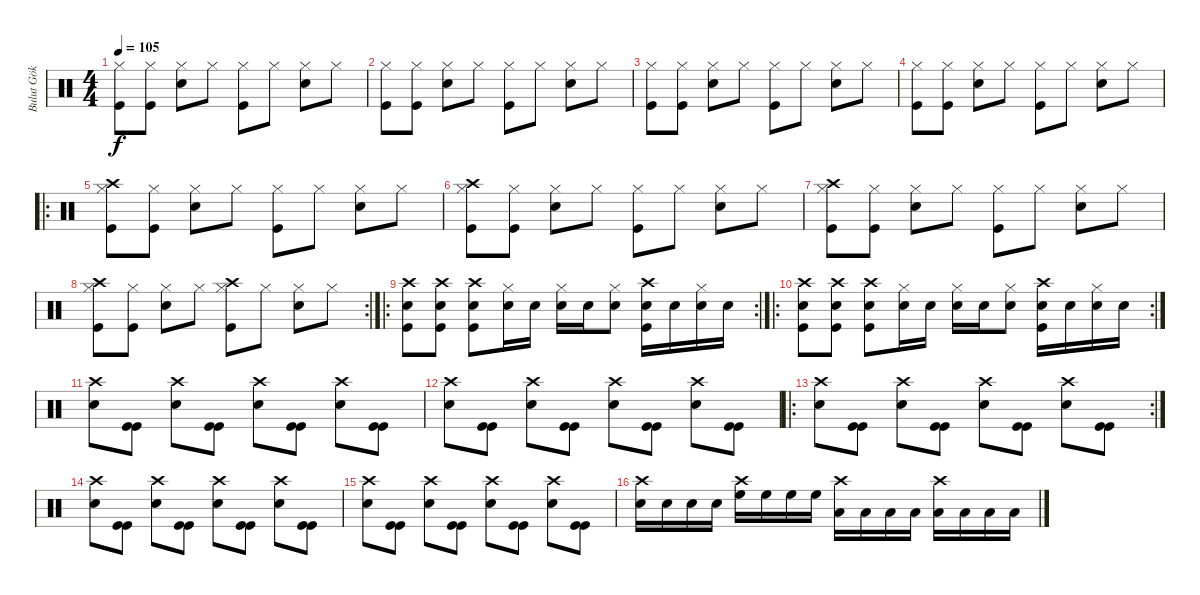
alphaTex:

\track ("Bulut Gök" "Bulut Gök") {instrument percussion}
\staff {score}
\articulation defaults
\ts (4 4)
\tempo 105
\clef neutral
\ks c
("Hi-Hat (closed)" "Kick (hit)").8{dy f} ("Hi-Hat (closed)" "Kick (hit)").8 ("Hi-Hat (closed)" "Snare (hit) 2").8 "Hi-Hat (closed)".8 ("Hi-Hat (closed)" "Kick (hit)").8 "Hi-Hat (closed)".8 ("Hi-Hat (closed)" "Snare (hit) 2").8 "Hi-Hat (closed)".8 |
("Hi-Hat (closed)" "Kick (hit)").8 ("Hi-Hat (closed)" "Kick (hit)").8 ("Hi-Hat (closed)" "Snare (hit) 2").8 "Hi-Hat (closed)".8 ("Hi-Hat (closed)" "Kick (hit)").8 "Hi-Hat (closed)".8 ("Hi-Hat (closed)" "Snare (hit) 2").8 "Hi-Hat (closed)".8 |
("Hi-Hat (closed)" "Kick (hit)").8 ("Hi-Hat (closed)" "Kick (hit)").8 ("Hi-Hat (closed)" "Snare (hit) 2").8 "Hi-Hat (closed)".8 ("Hi-Hat (closed)" "Kick (hit)").8 "Hi-Hat (closed)".8 ("Hi-Hat (closed)" "Snare (hit) 2").8 "Hi-Hat (closed)".8 |
("Hi-Hat (closed)" "Kick (hit)").8 ("Hi-Hat (closed)" "Kick (hit)").8 ("Hi-Hat (closed)" "Snare (hit) 2").8 "Hi-Hat (closed)".8 ("Hi-Hat (closed)" "Kick (hit)").8 "Hi-Hat (closed)".8 ("Hi-Hat (closed)" "Snare (hit) 2").8 "Hi-Hat (closed)".8 |
\ro
("Crash high (hit)" "Hi-Hat (closed)" "Kick (hit)").8 ("Hi-Hat (closed)" "Kick (hit)").8 ("Hi-Hat (closed)" "Snare (hit) 2").8 "Hi-Hat (closed)".8 ("Hi-Hat (closed)" "Kick (hit)").8 "Hi-Hat (closed)".8 ("Hi-Hat (closed)" "Snare (hit) 2").8 "Hi-Hat (closed)".8 |
("Crash high (hit)" "Hi-Hat (closed)" "Kick (hit)").8 ("Hi-Hat (closed)" "Kick (hit)").8 ("Hi-Hat (closed)" "Snare (hit) 2").8 "Hi-Hat (closed)".8 ("Hi-Hat (closed)" "Kick (hit)").8 "Hi-Hat (closed)".8 ("Hi-Hat (closed)" "Snare (hit) 2").8 "Hi-Hat (closed)".8 |
("Crash high (hit)" "Hi-Hat (closed)" "Kick (hit)").8 ("Hi-Hat (closed)" "Kick (hit)").8 ("Hi-Hat (closed)" "Snare (hit) 2").8 "Hi-Hat (closed)".8 ("Hi-Hat (closed)" "Kick (hit)").8 "Hi-Hat (closed)".8 ("Hi-Hat (closed)" "Snare (hit) 2").8 "Hi-Hat (closed)".8 |
\rc 2
("Crash high (hit)" "Hi-Hat (closed)" "Kick (hit)").8 ("Hi-Hat (closed)" "Kick (hit)").8 ("Hi-Hat (closed)" "Snare (hit) 2").8 "Hi-Hat (closed)".8 ("Crash high (hit)" "Hi-Hat (closed)" "Kick (hit)").8 "Hi-Hat (closed)".8 ("Hi-Hat (closed)" "Snare (hit) 2").8 "Hi-Hat (closed)".8 |
\ro
\rc 2
("Crash high (hit)" "Snare (hit) 2" "Kick (hit)").8 ("Crash high (hit)" "Snare (hit) 2" "Kick (hit)").8 ("Crash high (hit)" "Snare (hit) 2" "Kick (hit)").8 ("Hi-Hat (closed)" "Snare (hit) 2").16 "Snare (hit) 2".16 ("Hi-Hat (closed)" "Snare (hit) 2").16 "Snare (hit) 2".16 ("Hi-Hat (closed)" "Snare (hit) 2").8 ("Crash high (hit)" "Kick (hit)" "Snare (hit) 2").16 "Snare (hit) 2".16 ("Hi-Hat (closed)" "Snare (hit) 2").16 "Snare (hit) 2".16 |
\ro
\rc 2
("Crash high (hit)" "Snare (hit) 2" "Kick (hit)").8 ("Crash high (hit)" "Snare (hit) 2" "Kick (hit)").8 ("Crash high (hit)" "Snare (hit) 2" "Kick (hit)").8 ("Hi-Hat (closed)" "Snare (hit) 2").16 "Snare (hit) 2".16 ("Hi-Hat (closed)" "Snare (hit) 2").16 "Snare (hit) 2".16 ("Hi-Hat (closed)" "Snare (hit) 2").8 ("Crash high (hit)" "Kick (hit)" "Snare (hit) 2").16 "Snare (hit) 2".16 ("Hi-Hat (closed)" "Snare (hit) 2").16 "Snare (hit) 2".16 |
("Crash high (hit)" "Snare (hit) 2").8 ("Kick (hit)" "Kick (hit)").8 ("Crash high (hit)" "Snare (hit) 2").8 ("Kick (hit)" "Kick (hit)").8 ("Crash high (hit)" "Snare (hit) 2").8 ("Kick (hit)" "Kick (hit)").8 ("Crash high (hit)" "Snare (hit) 2").8 ("Kick (hit)" "Kick (hit)").8 |
("Crash high (hit)" "Snare (hit) 2").8 ("Kick (hit)" "Kick (hit)").8 ("Crash high (hit)" "Snare (hit) 2").8 ("Kick (hit)" "Kick (hit)").8 ("Crash high (hit)" "Snare (hit) 2").8 ("Kick (hit)" "Kick (hit)").8 ("Crash high (hit)" "Snare (hit) 2").8 ("Kick (hit)" "Kick (hit)").8 |
\ro
\rc 2
("Crash high (hit)" "Snare (hit) 2").8 ("Kick (hit)" "Kick (hit)").8 ("Crash high (hit)" "Snare (hit) 2").8 ("Kick (hit)" "Kick (hit)").8 ("Crash high (hit)" "Snare (hit) 2").8 ("Kick (hit)" "Kick (hit)").8 ("Crash high (hit)" "Snare (hit) 2").8 ("Kick (hit)" "Kick (hit)").8 |
("Crash high (hit)" "Snare (hit) 2").8 ("Kick (hit)" "Kick (hit)").8 ("Crash high (hit)" "Snare (hit) 2").8 ("Kick (hit)" "Kick (hit)").8 ("Crash high (hit)" "Snare (hit) 2").8 ("Kick (hit)" "Kick (hit)").8 ("Crash high (hit)" "Snare (hit) 2").8 ("Kick (hit)" "Kick (hit)").8 |
("Crash high (hit)" "Snare (hit) 2").8 ("Kick (hit)" "Kick (hit)").8 ("Crash high (hit)" "Snare (hit) 2").8 ("Kick (hit)" "Kick (hit)").8 ("Crash high (hit)" "Snare (hit) 2").8 ("Kick (hit)" "Kick (hit)").8 ("Crash high (hit)" "Snare (hit) 2").8 ("Kick (hit)" "Kick (hit)").8 |
("Crash high (hit)" "Snare (hit) 2").16 "Snare (hit) 2".16 "Snare (hit) 2".16 "Snare (hit) 2".16 ("Crash high (hit)" "High Floor Tom (hit)").16 "High Floor Tom (hit)".16 "High Floor Tom (hit)".16 "High Floor Tom (hit)".16 ("Crash high (hit)" "Low Tom (hit)").16 "Low Tom (hit)".16 "Low Tom (hit)".16 "Low Tom (hit)".16 ("Crash high (hit)" "Low Floor Tom (hit)").16 "Low Floor Tom (hit)".16 "Low Floor Tom (hit)".16 "Low Floor Tom (hit)".16
